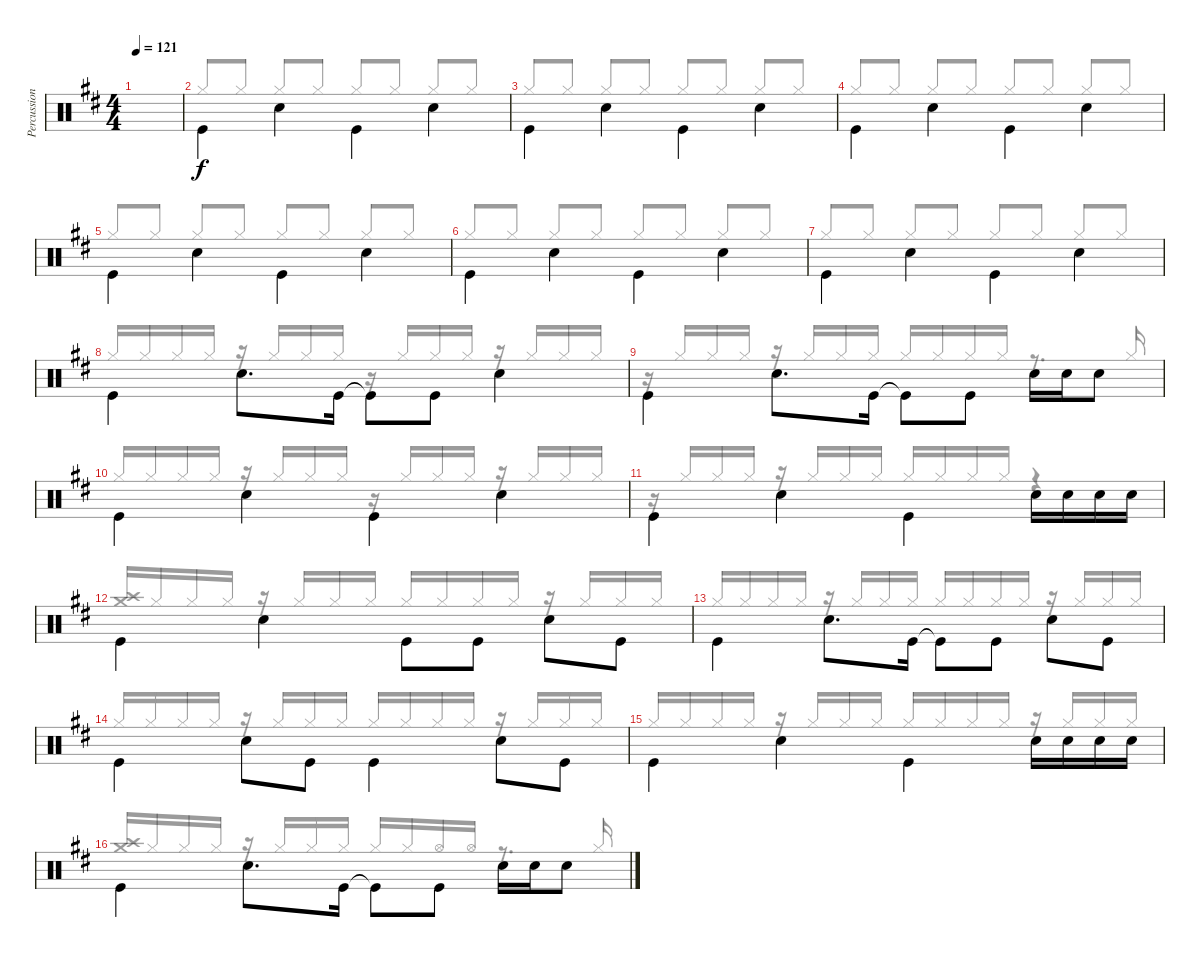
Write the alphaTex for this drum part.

\track ("Percussions" "Percussion") {instrument percussion}
\staff {score}
\articulation defaults
\voice
\ts (4 4)
\tempo 121
\clef neutral
\ks d
|
"Kick (hit)".4{beam Down} "Snare (hit) 2".4{beam Down} "Kick (hit)".4{beam Down} "Snare (hit) 2".4{beam Down} |
"Kick (hit)".4{beam Down} "Snare (hit) 2".4{beam Down} "Kick (hit)".4{beam Down} "Snare (hit) 2".4{beam Down} |
"Kick (hit)".4{beam Down} "Snare (hit) 2".4{beam Down} "Kick (hit)".4{beam Down} "Snare (hit) 2".4{beam Down} |
"Kick (hit)".4{beam Down} "Snare (hit) 2".4{beam Down} "Kick (hit)".4{beam Down} "Snare (hit) 2".4{beam Down} |
"Kick (hit)".4{beam Down} "Snare (hit) 2".4{beam Down} "Kick (hit)".4{beam Down} "Snare (hit) 2".4{beam Down} |
"Kick (hit)".4{beam Down} "Snare (hit) 2".4{beam Down} "Kick (hit)".4{beam Down} "Snare (hit) 2".4{beam Down} |
"Kick (hit)".4{beam Down} "Snare (hit) 2".8{d beam Down} "Kick (hit)".16{beam Down} "Kick (hit)"{t}.8{beam Down} "Kick (hit)".8{beam Down} "Snare (hit) 2".4{beam Down} |
"Kick (hit)".4{beam Down} "Snare (hit) 2".8{d beam Down} "Kick (hit)".16{beam Down} "Kick (hit)"{t}.8{beam Down} "Kick (hit)".8{beam Down} "Snare (hit) 2".16{beam Down} "Snare (hit) 2".16{beam Down} "Snare (hit) 2".8{beam Down} |
"Kick (hit)".4{beam Down} "Snare (hit) 2".4{beam Down} "Kick (hit)".4{beam Down} "Snare (hit) 2".4{beam Down} |
"Kick (hit)".4{beam Down} "Snare (hit) 2".4{beam Down} "Kick (hit)".4{beam Down} "Snare (hit) 2".16{beam Down} "Snare (hit) 2".16{beam Down} "Snare (hit) 2".16{beam Down} "Snare (hit) 2".16{beam Down} |
"Kick (hit)".4{beam Down} "Snare (hit) 2".4{beam Down} "Kick (hit)".8{beam Down} "Kick (hit)".8{beam Down} "Snare (hit) 2".8{beam Down} "Kick (hit)".8{beam Down} |
"Kick (hit)".4{beam Down} "Snare (hit) 2".8{d beam Down} "Kick (hit)".16{beam Down} "Kick (hit)"{t}.8{beam Down} "Kick (hit)".8{beam Down} "Snare (hit) 2".8{beam Down} "Kick (hit)".8{beam Down} |
"Kick (hit)".4{beam Down} "Snare (hit) 2".8{beam Down} "Kick (hit)".8{beam Down} "Kick (hit)".4{beam Down} "Snare (hit) 2".8{beam Down} "Kick (hit)".8{beam Down} |
"Kick (hit)".4{beam Down} "Snare (hit) 2".4{beam Down} "Kick (hit)".4{beam Down} "Snare (hit) 2".16{beam Down} "Snare (hit) 2".16{beam Down} "Snare (hit) 2".16{beam Down} "Snare (hit) 2".16{beam Down} |
"Kick (hit)".4{beam Down} "Snare (hit) 2".8{d beam Down} "Kick (hit)".16{beam Down} "Kick (hit)"{t}.8{beam Down} "Kick (hit)".8{beam Down} "Snare (hit) 2".16{beam Down} "Snare (hit) 2".16{beam Down} "Snare (hit) 2".8{beam Down}
\voice
\clef neutral
\ottava regular
\simile none
\ks d
|
"Hi-Hat (closed)".8{beam Up} "Hi-Hat (closed)".8 "Hi-Hat (closed)".8{beam Up} "Hi-Hat (closed)".8{beam Up} "Hi-Hat (closed)".8{beam Up} "Hi-Hat (closed)".8{beam Up} "Hi-Hat (closed)".8{beam Up} "Hi-Hat (closed)".8{beam Up} |
"Hi-Hat (closed)".8{beam Up} "Hi-Hat (closed)".8 "Hi-Hat (closed)".8{beam Up} "Hi-Hat (closed)".8{beam Up} "Hi-Hat (closed)".8{beam Up} "Hi-Hat (closed)".8{beam Up} "Hi-Hat (closed)".8{beam Up} "Hi-Hat (closed)".8{beam Up} |
"Hi-Hat (closed)".8{beam Up} "Hi-Hat (closed)".8 "Hi-Hat (closed)".8{beam Up} "Hi-Hat (closed)".8{beam Up} "Hi-Hat (closed)".8{beam Up} "Hi-Hat (closed)".8{beam Up} "Hi-Hat (closed)".8{beam Up} "Hi-Hat (closed)".8{beam Up} |
"Hi-Hat (closed)".8{beam Up} "Hi-Hat (closed)".8 "Hi-Hat (closed)".8{beam Up} "Hi-Hat (closed)".8{beam Up} "Hi-Hat (closed)".8{beam Up} "Hi-Hat (closed)".8{beam Up} "Hi-Hat (closed)".8{beam Up} "Hi-Hat (closed)".8{beam Up} |
"Hi-Hat (closed)".8{beam Up} "Hi-Hat (closed)".8 "Hi-Hat (closed)".8{beam Up} "Hi-Hat (closed)".8{beam Up} "Hi-Hat (closed)".8{beam Up} "Hi-Hat (closed)".8{beam Up} "Hi-Hat (closed)".8{beam Up} "Hi-Hat (closed)".8{beam Up} |
"Hi-Hat (closed)".8{beam Up} "Hi-Hat (closed)".8 "Hi-Hat (closed)".8{beam Up} "Hi-Hat (closed)".8{beam Up} "Hi-Hat (closed)".8{beam Up} "Hi-Hat (closed)".8{beam Up} "Hi-Hat (closed)".8{beam Up} "Hi-Hat (closed)".8{beam Up} |
"Hi-Hat (closed)".16{beam Up} "Hi-Hat (closed)".16{beam Up} "Hi-Hat (closed)".16{beam Up} "Hi-Hat (closed)".16{beam Up} r.16 "Hi-Hat (closed)".16{beam Up} "Hi-Hat (closed)".16{beam Up} "Hi-Hat (closed)".16{beam Up} r.16 "Hi-Hat (closed)".16{beam Up} "Hi-Hat (closed)".16{beam Up} "Hi-Hat (closed)".16{beam Up} r.16 "Hi-Hat (closed)".16{beam Up} "Hi-Hat (closed)".16{beam Up} "Hi-Hat (closed)".16{beam Up} |
r.16 "Hi-Hat (closed)".16{beam Up} "Hi-Hat (closed)".16{beam Up} "Hi-Hat (closed)".16{beam Up} r.16 "Hi-Hat (closed)".16{beam Up} "Hi-Hat (closed)".16{beam Up} "Hi-Hat (closed)".16{beam Up} "Hi-Hat (closed)".16{beam Up} "Hi-Hat (closed)".16{beam Up} "Hi-Hat (closed)".16{beam Up} "Hi-Hat (closed)".16{beam Up} r.8{d} "Hi-Hat (closed)".16{beam Up} |
"Hi-Hat (closed)".16{beam Up} "Hi-Hat (closed)".16{beam Up} "Hi-Hat (closed)".16{beam Up} "Hi-Hat (closed)".16{beam Up} r.16 "Hi-Hat (closed)".16{beam Up} "Hi-Hat (closed)".16{beam Up} "Hi-Hat (closed)".16{beam Up} r.16 "Hi-Hat (closed)".16{beam Up} "Hi-Hat (closed)".16{beam Up} "Hi-Hat (closed)".16{beam Up} r.16 "Hi-Hat (closed)".16{beam Up} "Hi-Hat (closed)".16{beam Up} "Hi-Hat (closed)".16{beam Up} |
r.16 "Hi-Hat (closed)".16{beam Up} "Hi-Hat (closed)".16{beam Up} "Hi-Hat (closed)".16{beam Up} r.16 "Hi-Hat (closed)".16{beam Up} "Hi-Hat (closed)".16{beam Up} "Hi-Hat (closed)".16{beam Up} "Hi-Hat (closed)".16{beam Up} "Hi-Hat (closed)".16{beam Up} "Hi-Hat (closed)".16{beam Up} "Hi-Hat (closed)".16{beam Up} r.4 |
("Crash medium (hit)" "Crash high (hit)").16{beam Up} "Hi-Hat (closed)".16{beam Up} "Hi-Hat (closed)".16{beam Up} "Hi-Hat (closed)".16{beam Up} r.16 "Hi-Hat (closed)".16{beam Up} "Hi-Hat (closed)".16{beam Up} "Hi-Hat (closed)".16{beam Up} "Hi-Hat (closed)".16{beam Up} "Hi-Hat (closed)".16{beam Up} "Hi-Hat (closed)".16{beam Up} "Hi-Hat (closed)".16{beam Up} r.16 "Hi-Hat (closed)".16{beam Up} "Hi-Hat (closed)".16{beam Up} "Hi-Hat (closed)".16{beam Up} |
"Hi-Hat (closed)".16{beam Up} "Hi-Hat (closed)".16{beam Up} "Hi-Hat (closed)".16{beam Up} "Hi-Hat (closed)".16{beam Up} r.16 "Hi-Hat (closed)".16{beam Up} "Hi-Hat (closed)".16{beam Up} "Hi-Hat (closed)".16{beam Up} "Hi-Hat (closed)".16{beam Up} "Hi-Hat (closed)".16{beam Up} "Hi-Hat (closed)".16{beam Up} "Hi-Hat (closed)".16{beam Up} r.16 "Hi-Hat (closed)".16{beam Up} "Hi-Hat (closed)".16{beam Up} "Hi-Hat (closed)".16{beam Up} |
"Hi-Hat (closed)".16{beam Up} "Hi-Hat (closed)".16{beam Up} "Hi-Hat (closed)".16{beam Up} "Hi-Hat (closed)".16{beam Up} r.16 "Hi-Hat (closed)".16{beam Up} "Hi-Hat (closed)".16{beam Up} "Hi-Hat (closed)".16{beam Up} "Hi-Hat (closed)".16{beam Up} "Hi-Hat (closed)".16{beam Up} "Hi-Hat (closed)".16{beam Up} "Hi-Hat (closed)".16{beam Up} r.16 "Hi-Hat (closed)".16{beam Up} "Hi-Hat (closed)".16{beam Up} "Hi-Hat (closed)".16{beam Up} |
"Hi-Hat (closed)".16{beam Up} "Hi-Hat (closed)".16{beam Up} "Hi-Hat (closed)".16{beam Up} "Hi-Hat (closed)".16{beam Up} r.16 "Hi-Hat (closed)".16{beam Up} "Hi-Hat (closed)".16{beam Up} "Hi-Hat (closed)".16{beam Up} "Hi-Hat (closed)".16{beam Up} "Hi-Hat (closed)".16{beam Up} "Hi-Hat (closed)".16{beam Up} "Hi-Hat (closed)".16{beam Up} r.16 "Hi-Hat (closed)".16{beam Up} "Hi-Hat (closed)".16{beam Up} "Hi-Hat (closed)".16{beam Up} |
("Crash medium (hit)" "Crash high (hit)").16{beam Up} "Hi-Hat (closed)".16{beam Up} "Hi-Hat (closed)".16{beam Up} "Hi-Hat (closed)".16{beam Up} r.16 "Hi-Hat (closed)".16{beam Up} "Hi-Hat (closed)".16{beam Up} "Hi-Hat (closed)".16{beam Up} "Hi-Hat (closed)".16{beam Up} "Hi-Hat (closed)".16{beam Up} "Hi-Hat (open)".16{beam Up} "Hi-Hat (open)".16{beam Up} r.8{d} "Hi-Hat (closed)".16{beam Up}
